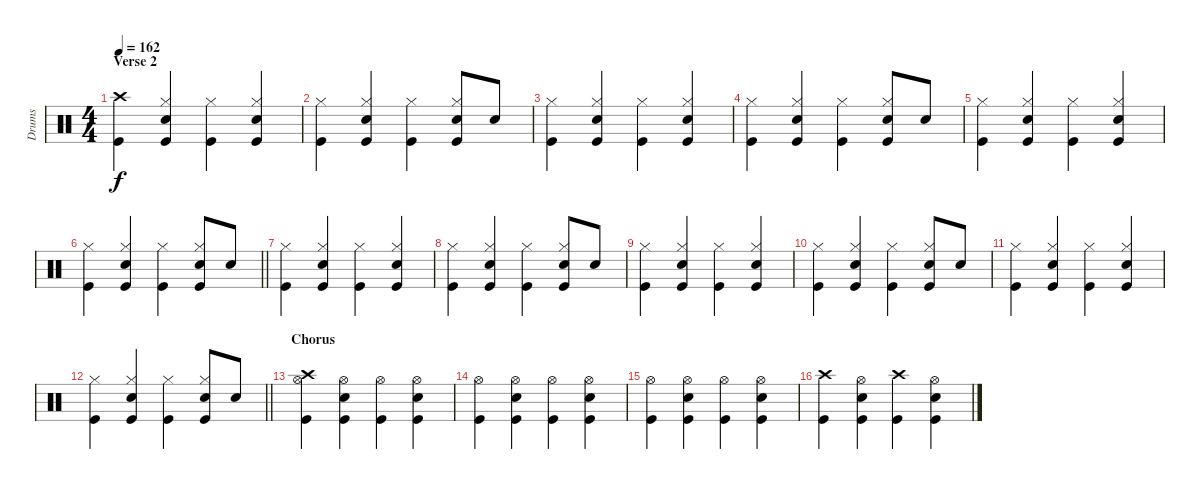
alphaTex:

\track ("Drums" "Drums") {instrument percussion}
\staff {score}
\articulation defaults
\ts (4 4)
\section ("" "Verse 2")
\tempo 162
\clef neutral
\ks c
("Crash high (hit)" "Kick (hit)").4{dy f} ("Hi-Hat (closed)" "Snare (hit) 2" "Kick (hit)").4 ("Hi-Hat (closed)" "Kick (hit)").4 ("Hi-Hat (closed)" "Snare (hit) 2" "Kick (hit)").4 |
("Hi-Hat (closed)" "Kick (hit)").4 ("Hi-Hat (closed)" "Snare (hit) 2" "Kick (hit)").4 ("Hi-Hat (closed)" "Kick (hit)").4 ("Hi-Hat (closed)" "Snare (hit) 2" "Kick (hit)").8 "Snare (hit) 2".8 |
("Hi-Hat (closed)" "Kick (hit)").4 ("Hi-Hat (closed)" "Snare (hit) 2" "Kick (hit)").4 ("Hi-Hat (closed)" "Kick (hit)").4 ("Hi-Hat (closed)" "Snare (hit) 2" "Kick (hit)").4 |
("Hi-Hat (closed)" "Kick (hit)").4 ("Hi-Hat (closed)" "Snare (hit) 2" "Kick (hit)").4 ("Hi-Hat (closed)" "Kick (hit)").4 ("Hi-Hat (closed)" "Snare (hit) 2" "Kick (hit)").8 "Snare (hit) 2".8 |
("Hi-Hat (closed)" "Kick (hit)").4 ("Hi-Hat (closed)" "Snare (hit) 2" "Kick (hit)").4 ("Hi-Hat (closed)" "Kick (hit)").4 ("Hi-Hat (closed)" "Snare (hit) 2" "Kick (hit)").4 |
\barLineRight lightlight
("Hi-Hat (closed)" "Kick (hit)").4 ("Hi-Hat (closed)" "Snare (hit) 2" "Kick (hit)").4 ("Hi-Hat (closed)" "Kick (hit)").4 ("Hi-Hat (closed)" "Snare (hit) 2" "Kick (hit)").8 "Snare (hit) 2".8 |
("Hi-Hat (closed)" "Kick (hit)").4 ("Hi-Hat (closed)" "Snare (hit) 2" "Kick (hit)").4 ("Hi-Hat (closed)" "Kick (hit)").4 ("Hi-Hat (closed)" "Snare (hit) 2" "Kick (hit)").4 |
("Hi-Hat (closed)" "Kick (hit)").4 ("Hi-Hat (closed)" "Snare (hit) 2" "Kick (hit)").4 ("Hi-Hat (closed)" "Kick (hit)").4 ("Hi-Hat (closed)" "Snare (hit) 2" "Kick (hit)").8 "Snare (hit) 2".8 |
("Hi-Hat (closed)" "Kick (hit)").4 ("Hi-Hat (closed)" "Snare (hit) 2" "Kick (hit)").4 ("Hi-Hat (closed)" "Kick (hit)").4 ("Hi-Hat (closed)" "Snare (hit) 2" "Kick (hit)").4 |
("Hi-Hat (closed)" "Kick (hit)").4 ("Hi-Hat (closed)" "Snare (hit) 2" "Kick (hit)").4 ("Hi-Hat (closed)" "Kick (hit)").4 ("Hi-Hat (closed)" "Snare (hit) 2" "Kick (hit)").8 "Snare (hit) 2".8 |
("Hi-Hat (closed)" "Kick (hit)").4 ("Hi-Hat (closed)" "Snare (hit) 2" "Kick (hit)").4 ("Hi-Hat (closed)" "Kick (hit)").4 ("Hi-Hat (closed)" "Snare (hit) 2" "Kick (hit)").4 |
\barLineRight lightlight
("Hi-Hat (closed)" "Kick (hit)").4 ("Hi-Hat (closed)" "Snare (hit) 2" "Kick (hit)").4 ("Hi-Hat (closed)" "Kick (hit)").4 ("Hi-Hat (closed)" "Snare (hit) 2" "Kick (hit)").8 "Snare (hit) 2".8 |
\section ("" "Chorus")
("Crash high (hit)" "Hi-Hat (open)" "Kick (hit)").4 ("Hi-Hat (open)" "Snare (hit) 2" "Kick (hit)").4 ("Hi-Hat (open)" "Kick (hit)").4 ("Hi-Hat (open)" "Snare (hit) 2" "Kick (hit)").4 |
("Hi-Hat (open)" "Kick (hit)").4 ("Hi-Hat (open)" "Snare (hit) 2" "Kick (hit)").4 ("Hi-Hat (open)" "Kick (hit)").4 ("Hi-Hat (open)" "Snare (hit) 2" "Kick (hit)").4 |
("Hi-Hat (open)" "Kick (hit)").4 ("Hi-Hat (open)" "Snare (hit) 2" "Kick (hit)").4 ("Hi-Hat (open)" "Kick (hit)").4 ("Hi-Hat (open)" "Snare (hit) 2" "Kick (hit)").4 |
("Crash high (hit)" "Kick (hit)").4 ("Hi-Hat (open)" "Snare (hit) 2" "Kick (hit)").4 ("Crash high (hit)" "Kick (hit)").4 ("Hi-Hat (open)" "Snare (hit) 2" "Kick (hit)").4
